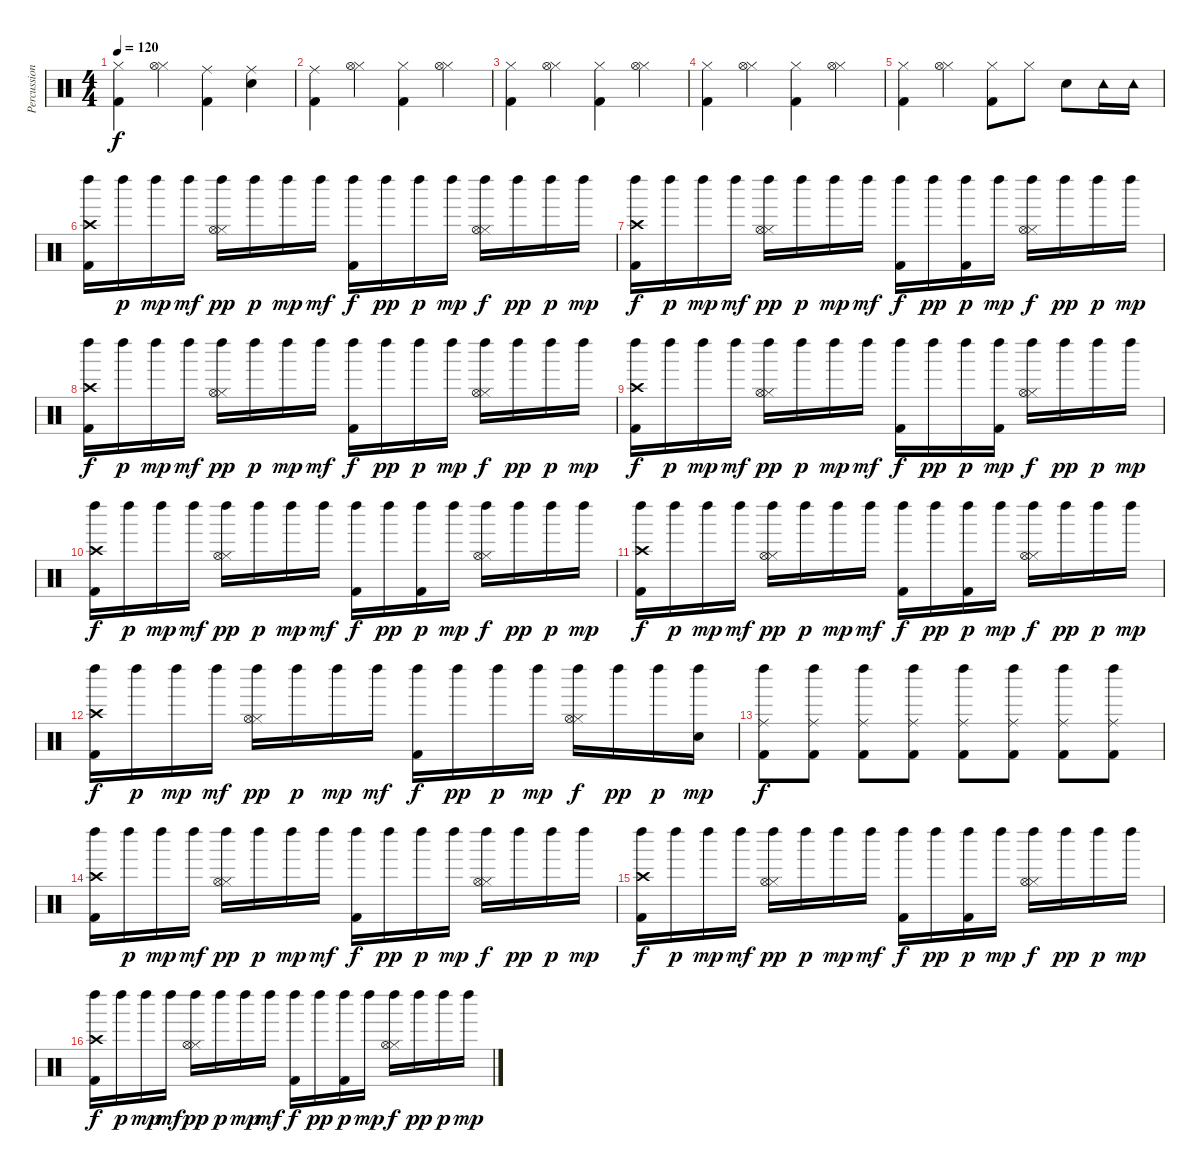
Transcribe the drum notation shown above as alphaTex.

\track ("Percussion" "Percussion") {instrument percussion}
\staff {score}
\articulation defaults
\ts (4 4)
\tempo 120
\clef neutral
\ks c
("Kick (hit) 2" "Hi-Hat (closed)").4{dy f} ("Hi-Hat (closed)" "Hi-Hat (open)").4 ("Kick (hit) 2" "Ride (middle)").4 ("Snare (hit) 2" "Ride (middle)").4 |
("Kick (hit) 2" "Ride (middle)").4 ("Hi-Hat (closed)" "Hi-Hat (open)").4 ("Kick (hit) 2" "Hi-Hat (closed)").4 ("Hi-Hat (closed)" "Hi-Hat (open)").4 |
("Kick (hit) 2" "Hi-Hat (closed)").4 ("Hi-Hat (closed)" "Hi-Hat (open)").4 ("Kick (hit) 2" "Hi-Hat (closed)").4 ("Hi-Hat (closed)" "Hi-Hat (open)").4 |
("Kick (hit) 2" "Hi-Hat (closed)").4 ("Hi-Hat (closed)" "Hi-Hat (open)").4 ("Kick (hit) 2" "Hi-Hat (closed)").4 ("Hi-Hat (closed)" "Hi-Hat (open)").4 |
("Kick (hit) 2" "Hi-Hat (closed)").4 ("Hi-Hat (closed)" "Hi-Hat (open)").4 ("Kick (hit) 2" "Hi-Hat (closed)").8 "Hi-Hat (closed)".8 "Snare (hit) 2".8 "Tambourine (hit)".16 "Tambourine (hit)".16 |
("Kick (hit) 2" "Crash high (hit)" "Left Maraca (hit)").16 "Left Maraca (hit)".16{dy p} "Left Maraca (hit)".16{dy mp} "Left Maraca (hit)".16{dy mf} ("Hi-Hat (closed)" "Hi-Hat (open)" "Left Maraca (hit)").16{dy pp} "Left Maraca (hit)".16{dy p} "Left Maraca (hit)".16{dy mp} "Left Maraca (hit)".16{dy mf} ("Kick (hit) 2" "Left Maraca (hit)").16{dy f} "Left Maraca (hit)".16{dy pp} "Left Maraca (hit)".16{dy p} "Left Maraca (hit)".16{dy mp} ("Hi-Hat (closed)" "Hi-Hat (open)" "Left Maraca (hit)").16{dy f} "Left Maraca (hit)".16{dy pp} "Left Maraca (hit)".16{dy p} "Left Maraca (hit)".16{dy mp} |
("Kick (hit) 2" "Crash high (hit)" "Left Maraca (hit)").16{dy f} "Left Maraca (hit)".16{dy p} "Left Maraca (hit)".16{dy mp} "Left Maraca (hit)".16{dy mf} ("Hi-Hat (closed)" "Hi-Hat (open)" "Left Maraca (hit)").16{dy pp} "Left Maraca (hit)".16{dy p} "Left Maraca (hit)".16{dy mp} "Left Maraca (hit)".16{dy mf} ("Kick (hit) 2" "Left Maraca (hit)").16{dy f} "Left Maraca (hit)".16{dy pp} ("Kick (hit) 2" "Left Maraca (hit)").16{dy p} "Left Maraca (hit)".16{dy mp} ("Hi-Hat (closed)" "Hi-Hat (open)" "Left Maraca (hit)").16{dy f} "Left Maraca (hit)".16{dy pp} "Left Maraca (hit)".16{dy p} "Left Maraca (hit)".16{dy mp} |
("Kick (hit) 2" "Crash high (hit)" "Left Maraca (hit)").16{dy f} "Left Maraca (hit)".16{dy p} "Left Maraca (hit)".16{dy mp} "Left Maraca (hit)".16{dy mf} ("Hi-Hat (closed)" "Hi-Hat (open)" "Left Maraca (hit)").16{dy pp} "Left Maraca (hit)".16{dy p} "Left Maraca (hit)".16{dy mp} "Left Maraca (hit)".16{dy mf} ("Kick (hit) 2" "Left Maraca (hit)").16{dy f} "Left Maraca (hit)".16{dy pp} "Left Maraca (hit)".16{dy p} "Left Maraca (hit)".16{dy mp} ("Hi-Hat (closed)" "Hi-Hat (open)" "Left Maraca (hit)").16{dy f} "Left Maraca (hit)".16{dy pp} "Left Maraca (hit)".16{dy p} "Left Maraca (hit)".16{dy mp} |
("Kick (hit) 2" "Crash high (hit)" "Left Maraca (hit)").16{dy f} "Left Maraca (hit)".16{dy p} "Left Maraca (hit)".16{dy mp} "Left Maraca (hit)".16{dy mf} ("Hi-Hat (closed)" "Hi-Hat (open)" "Left Maraca (hit)").16{dy pp} "Left Maraca (hit)".16{dy p} "Left Maraca (hit)".16{dy mp} "Left Maraca (hit)".16{dy mf} ("Kick (hit) 2" "Left Maraca (hit)").16{dy f} "Left Maraca (hit)".16{dy pp} "Left Maraca (hit)".16{dy p} ("Kick (hit) 2" "Left Maraca (hit)").16{dy mp} ("Hi-Hat (closed)" "Hi-Hat (open)" "Left Maraca (hit)").16{dy f} "Left Maraca (hit)".16{dy pp} "Left Maraca (hit)".16{dy p} "Left Maraca (hit)".16{dy mp} |
("Kick (hit) 2" "Crash high (hit)" "Left Maraca (hit)").16{dy f} "Left Maraca (hit)".16{dy p} "Left Maraca (hit)".16{dy mp} "Left Maraca (hit)".16{dy mf} ("Hi-Hat (closed)" "Hi-Hat (open)" "Left Maraca (hit)").16{dy pp} "Left Maraca (hit)".16{dy p} "Left Maraca (hit)".16{dy mp} "Left Maraca (hit)".16{dy mf} ("Kick (hit) 2" "Left Maraca (hit)").16{dy f} "Left Maraca (hit)".16{dy pp} ("Kick (hit) 2" "Left Maraca (hit)").16{dy p} "Left Maraca (hit)".16{dy mp} ("Hi-Hat (closed)" "Hi-Hat (open)" "Left Maraca (hit)").16{dy f} "Left Maraca (hit)".16{dy pp} "Left Maraca (hit)".16{dy p} "Left Maraca (hit)".16{dy mp} |
("Kick (hit) 2" "Crash high (hit)" "Left Maraca (hit)").16{dy f} "Left Maraca (hit)".16{dy p} "Left Maraca (hit)".16{dy mp} "Left Maraca (hit)".16{dy mf} ("Hi-Hat (closed)" "Hi-Hat (open)" "Left Maraca (hit)").16{dy pp} "Left Maraca (hit)".16{dy p} "Left Maraca (hit)".16{dy mp} "Left Maraca (hit)".16{dy mf} ("Kick (hit) 2" "Left Maraca (hit)").16{dy f} "Left Maraca (hit)".16{dy pp} ("Kick (hit) 2" "Left Maraca (hit)").16{dy p} "Left Maraca (hit)".16{dy mp} ("Hi-Hat (closed)" "Hi-Hat (open)" "Left Maraca (hit)").16{dy f} "Left Maraca (hit)".16{dy pp} "Left Maraca (hit)".16{dy p} "Left Maraca (hit)".16{dy mp} |
("Kick (hit) 2" "Crash high (hit)" "Left Maraca (hit)").16{dy f} "Left Maraca (hit)".16{dy p} "Left Maraca (hit)".16{dy mp} "Left Maraca (hit)".16{dy mf} ("Hi-Hat (closed)" "Hi-Hat (open)" "Left Maraca (hit)").16{dy pp} "Left Maraca (hit)".16{dy p} "Left Maraca (hit)".16{dy mp} "Left Maraca (hit)".16{dy mf} ("Kick (hit) 2" "Left Maraca (hit)").16{dy f} "Left Maraca (hit)".16{dy pp} "Left Maraca (hit)".16{dy p} "Left Maraca (hit)".16{dy mp} ("Hi-Hat (closed)" "Hi-Hat (open)" "Left Maraca (hit)").16{dy f} "Left Maraca (hit)".16{dy pp} "Left Maraca (hit)".16{dy p} ("Snare (hit) 2" "Left Maraca (hit)").16{dy mp} |
("Kick (hit) 2" "Ride (middle)" "Left Maraca (hit)").8{dy f} ("Kick (hit) 2" "Ride (middle)" "Left Maraca (hit)").8 ("Kick (hit) 2" "Ride (middle)" "Left Maraca (hit)").8 ("Kick (hit) 2" "Ride (middle)" "Left Maraca (hit)").8 ("Kick (hit) 2" "Ride (middle)" "Left Maraca (hit)").8 ("Kick (hit) 2" "Ride (middle)" "Left Maraca (hit)").8 ("Kick (hit) 2" "Ride (middle)" "Left Maraca (hit)").8 ("Kick (hit) 2" "Ride (middle)" "Left Maraca (hit)").8 |
("Kick (hit) 2" "Crash high (hit)" "Left Maraca (hit)").16 "Left Maraca (hit)".16{dy p} "Left Maraca (hit)".16{dy mp} "Left Maraca (hit)".16{dy mf} ("Hi-Hat (closed)" "Hi-Hat (open)" "Left Maraca (hit)").16{dy pp} "Left Maraca (hit)".16{dy p} "Left Maraca (hit)".16{dy mp} "Left Maraca (hit)".16{dy mf} ("Kick (hit) 2" "Left Maraca (hit)").16{dy f} "Left Maraca (hit)".16{dy pp} "Left Maraca (hit)".16{dy p} "Left Maraca (hit)".16{dy mp} ("Hi-Hat (closed)" "Hi-Hat (open)" "Left Maraca (hit)").16{dy f} "Left Maraca (hit)".16{dy pp} "Left Maraca (hit)".16{dy p} "Left Maraca (hit)".16{dy mp} |
("Kick (hit) 2" "Crash high (hit)" "Left Maraca (hit)").16{dy f} "Left Maraca (hit)".16{dy p} "Left Maraca (hit)".16{dy mp} "Left Maraca (hit)".16{dy mf} ("Hi-Hat (closed)" "Hi-Hat (open)" "Left Maraca (hit)").16{dy pp} "Left Maraca (hit)".16{dy p} "Left Maraca (hit)".16{dy mp} "Left Maraca (hit)".16{dy mf} ("Kick (hit) 2" "Left Maraca (hit)").16{dy f} "Left Maraca (hit)".16{dy pp} ("Kick (hit) 2" "Left Maraca (hit)").16{dy p} "Left Maraca (hit)".16{dy mp} ("Hi-Hat (closed)" "Hi-Hat (open)" "Left Maraca (hit)").16{dy f} "Left Maraca (hit)".16{dy pp} "Left Maraca (hit)".16{dy p} "Left Maraca (hit)".16{dy mp} |
("Kick (hit) 2" "Crash high (hit)" "Left Maraca (hit)").16{dy f} "Left Maraca (hit)".16{dy p} "Left Maraca (hit)".16{dy mp} "Left Maraca (hit)".16{dy mf} ("Hi-Hat (closed)" "Hi-Hat (open)" "Left Maraca (hit)").16{dy pp} "Left Maraca (hit)".16{dy p} "Left Maraca (hit)".16{dy mp} "Left Maraca (hit)".16{dy mf} ("Kick (hit) 2" "Left Maraca (hit)").16{dy f} "Left Maraca (hit)".16{dy pp} ("Kick (hit) 2" "Left Maraca (hit)").16{dy p} "Left Maraca (hit)".16{dy mp} ("Hi-Hat (closed)" "Hi-Hat (open)" "Left Maraca (hit)").16{dy f} "Left Maraca (hit)".16{dy pp} "Left Maraca (hit)".16{dy p} "Left Maraca (hit)".16{dy mp}
